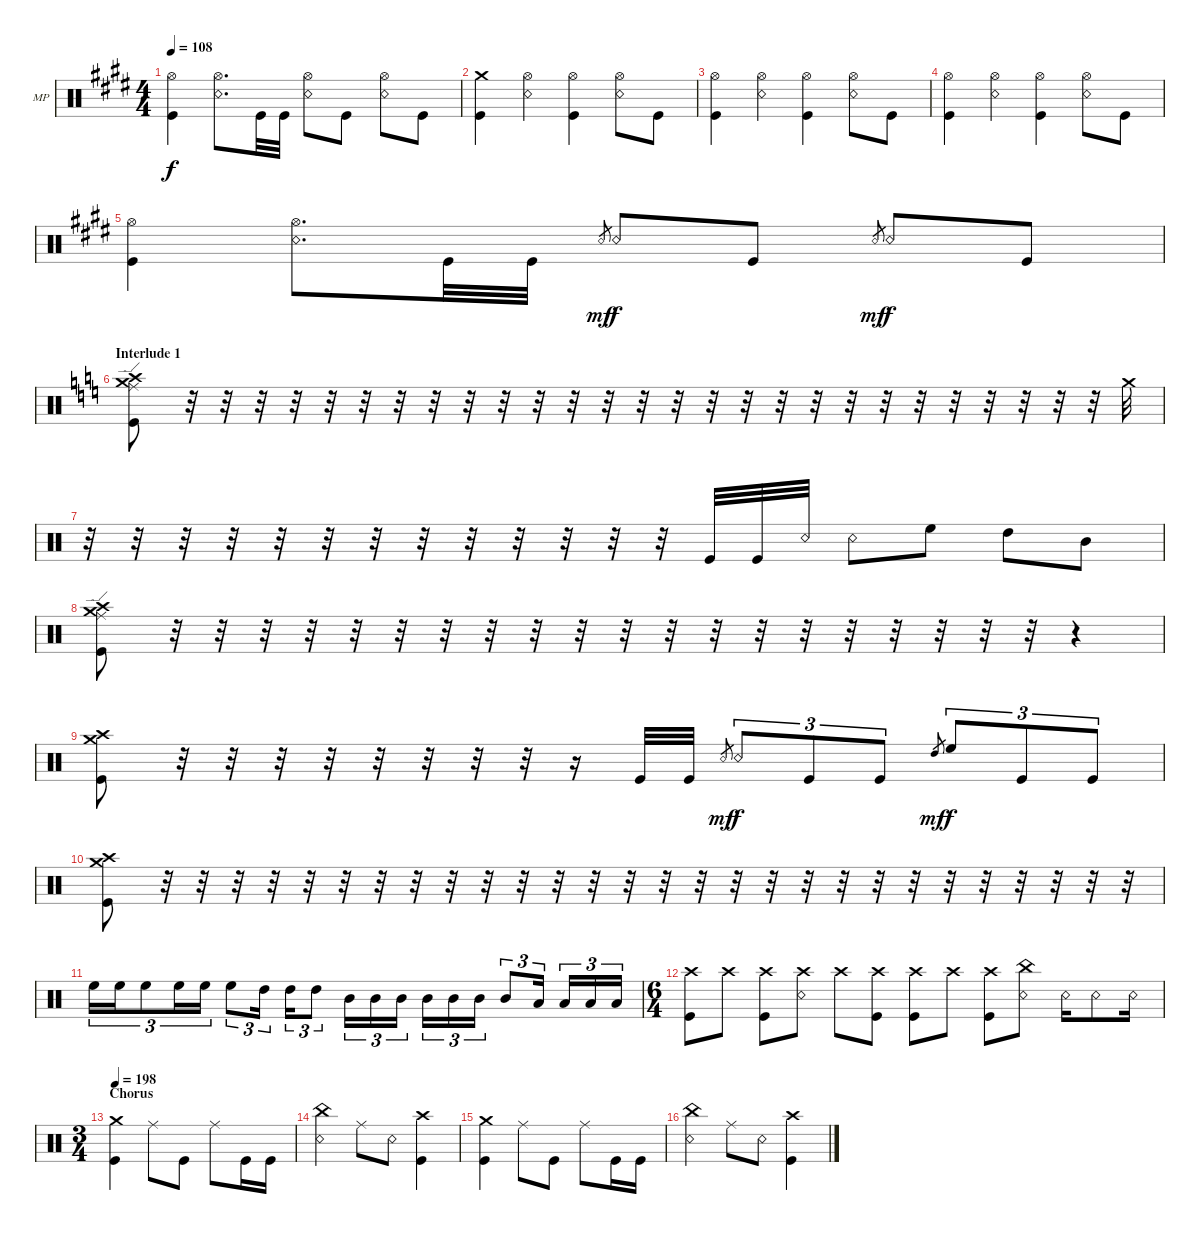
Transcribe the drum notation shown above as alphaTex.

\defaultSystemsLayout 4
\bracketExtendMode groupsimilarinstruments
\firstSystemTrackNameOrientation horizontal
\otherSystemsTrackNameOrientation horizontal
\track ("Mike Portnoy" "MP") {instrument percussion}
\staff {score}
\articulation defaults
\ts (4 4)
\tempo 108
\clef neutral
\ks e
("Hi-Hat (open)" "Kick (hit)").4{dy f} ("Hi-Hat (open)" "Snare (rim shot)").8{d} "Kick (hit)".32 "Kick (hit)".32 ("Hi-Hat (open)" "Snare (rim shot)").8 "Kick (hit)".8 ("Hi-Hat (open)" "Snare (rim shot)").8 "Kick (hit)".8 |
("Crash medium (hit)" "Kick (hit)").4 ("Hi-Hat (open)" "Snare (rim shot)").4 ("Hi-Hat (open)" "Kick (hit)").4 ("Hi-Hat (open)" "Snare (rim shot)").8 "Kick (hit)".8 |
("Hi-Hat (open)" "Kick (hit)").4 ("Hi-Hat (open)" "Snare (rim shot)").4 ("Hi-Hat (open)" "Kick (hit)").4 ("Hi-Hat (open)" "Snare (rim shot)").8 "Kick (hit)".8 |
("Hi-Hat (open)" "Kick (hit)").4 ("Hi-Hat (open)" "Snare (rim shot)").4 ("Hi-Hat (open)" "Kick (hit)").4 ("Hi-Hat (open)" "Snare (rim shot)").8 "Kick (hit)".8 |
("Hi-Hat (open)" "Kick (hit)").4 ("Hi-Hat (open)" "Snare (rim shot)").8{d} "Kick (hit)".32 "Kick (hit)".32 "Snare (rim shot)".8{gr dy mf} "Snare (rim shot)".8{dy f} "Kick (hit)".8 "Snare (rim shot)".8{gr dy mf} "Snare (rim shot)".8{dy f} "Kick (hit)".8 |
\section ("" "Interlude 1")
\ks aminor
("Crash medium (hit)" "Crash high (hit)" "Kick (hit)" "Ride (edge)").8 r.32 r.32 r.32 r.32 r.32 r.32 r.32 r.32 r.32 r.32 r.32 r.32 r.32 r.32 r.32 r.32 r.32 r.32 r.32 r.32 r.32 r.32 r.32 r.32 r.32 r.32 r.32 "Crash medium (hit)".32 |
r.32 r.32 r.32 r.32 r.32 r.32 r.32 r.32 r.32 r.32 r.32 r.32 r.32 "Kick (hit)".32 "Kick (hit)".32 "Snare (rim shot)".32 "Snare (rim shot)".8 "High Floor Tom (hit)".8 "High Tom (hit)".8 "Mid Tom (hit)".8 |
("Crash medium (hit)" "Crash high (hit)" "Kick (hit)" "Ride (edge)").8 r.32 r.32 r.32 r.32 r.32 r.32 r.32 r.32 r.32 r.32 r.32 r.32 r.32 r.32 r.32 r.32 r.32 r.32 r.32 r.32 r.4 |
("Crash medium (hit)" "Crash high (hit)" "Kick (hit)").8 r.32 r.32 r.32 r.32 r.32 r.32 r.32 r.32 r.16 "Kick (hit)".32 "Kick (hit)".32 "Snare (rim shot)".8{gr dy mf} "Snare (rim shot)".8{tu (3 2) dy f} "Kick (hit)".8{tu (3 2)} "Kick (hit)".8{tu (3 2)} "High Tom (hit)".8{gr dy mf} "High Floor Tom (hit)".8{tu (3 2) dy f} "Kick (hit)".8{tu (3 2)} "Kick (hit)".8{tu (3 2)} |
("Crash medium (hit)" "Crash high (hit)" "Kick (hit)").8 r.32 r.32 r.32 r.32 r.32 r.32 r.32 r.32 r.32 r.32 r.32 r.32 r.32 r.32 r.32 r.32 r.32 r.32 r.32 r.32 r.32 r.32 r.32 r.32 r.32 r.32 r.32 r.32 |
"High Floor Tom (hit)".16{tu (3 2)} "High Floor Tom (hit)".16{tu (3 2)} "High Floor Tom (hit)".8{tu (3 2)} "High Floor Tom (hit)".16{tu (3 2)} "High Floor Tom (hit)".16{tu (3 2)} "High Floor Tom (hit)".8{tu (3 2)} "High Tom (hit)".16{tu (3 2)} "High Tom (hit)".16{tu (3 2)} "High Tom (hit)".8{tu (3 2)} "Mid Tom (hit)".16{tu (3 2)} "Mid Tom (hit)".16{tu (3 2)} "Mid Tom (hit)".16{tu (3 2)} "Mid Tom (hit)".16{tu (3 2)} "Mid Tom (hit)".16{tu (3 2)} "Mid Tom (hit)".16{tu (3 2)} "Mid Tom (hit)".8{tu (3 2)} "Low Tom (hit)".16{tu (3 2)} "Low Tom (hit)".16{tu (3 2)} "Low Tom (hit)".16{tu (3 2)} "Low Tom (hit)".16{tu (3 2)} |
\ts (6 4)
("Crash high (hit)" "Kick (hit)").8 "Crash high (hit)".8 ("Crash high (hit)" "Kick (hit)").8 ("Crash high (hit)" "Snare (rim shot)").8 "Crash high (hit)".8 ("Crash high (hit)" "Kick (hit)").8 ("Crash high (hit)" "Kick (hit)").8 "Crash high (hit)".8 ("Crash high (hit)" "Kick (hit)").8 ("China (hit)" "Snare (rim shot)").8 "Snare (rim shot)".16 "Snare (rim shot)".8 "Snare (rim shot)".16 |
\ts (3 4)
\section ("" "Chorus")
\tempo 198
("Crash medium (hit)" "Kick (hit)").4 "Ride (middle)".8 "Kick (hit)".8 "Ride (middle)".8 "Kick (hit)".16 "Kick (hit)".16 |
("China (hit)" "Snare (rim shot)").4 "Ride (middle)".8 "Snare (rim shot)".8 ("Crash high (hit)" "Kick (hit)").4 |
("Crash medium (hit)" "Kick (hit)").4 "Ride (middle)".8 "Kick (hit)".8 "Ride (middle)".8 "Kick (hit)".16 "Kick (hit)".16 |
("China (hit)" "Snare (rim shot)").4 "Ride (middle)".8 "Snare (rim shot)".8 ("Crash high (hit)" "Kick (hit)").4
